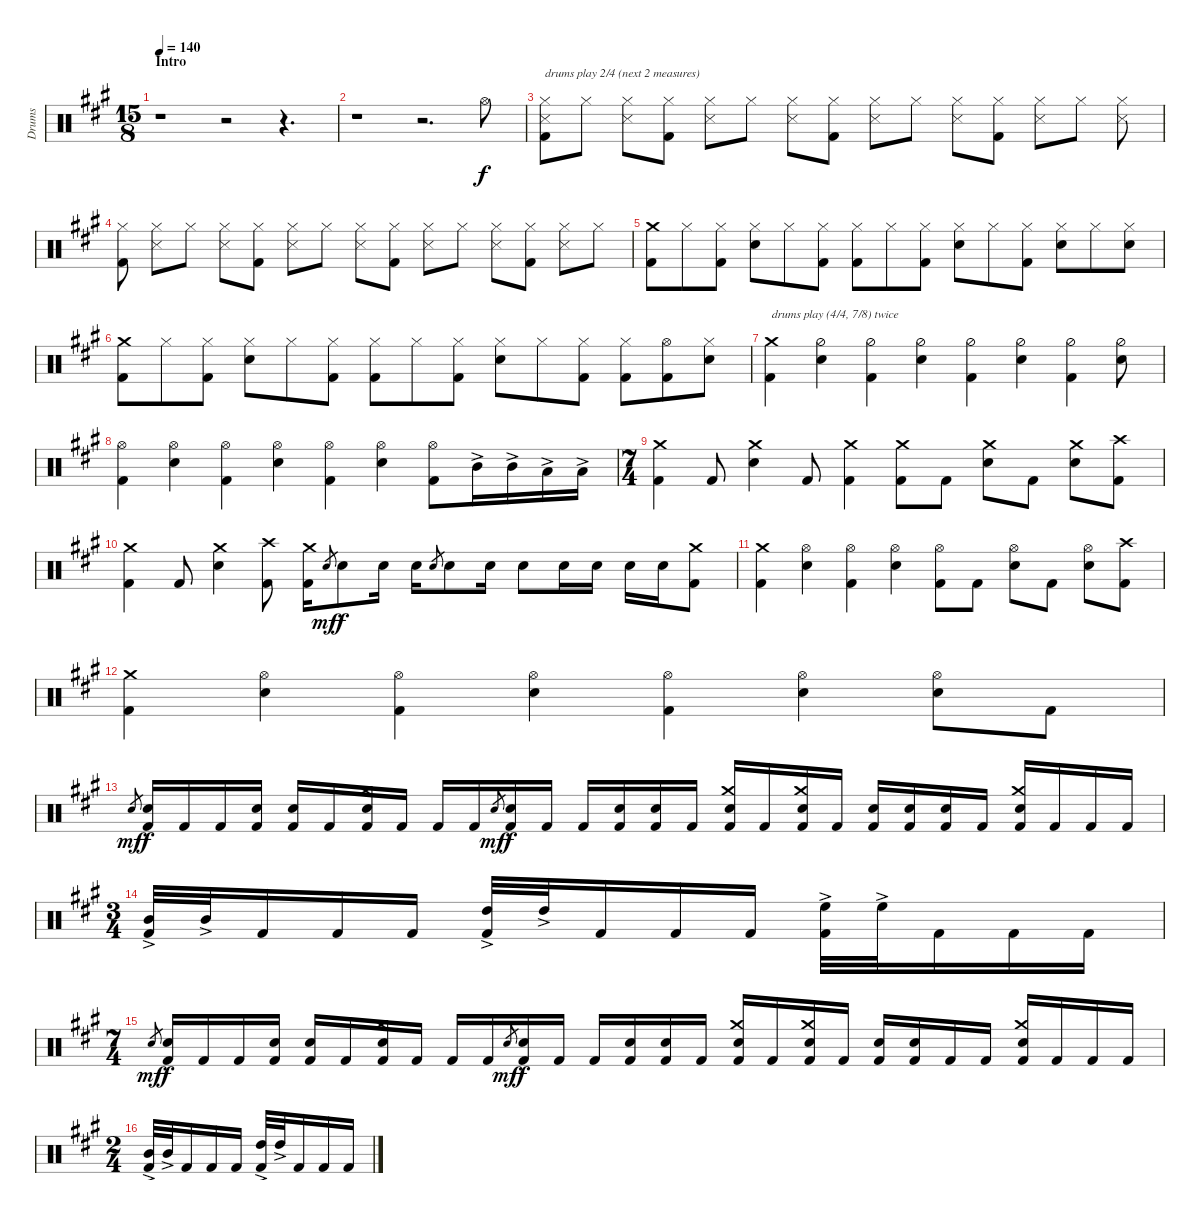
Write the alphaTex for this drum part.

\defaultSystemsLayout 4
\bracketExtendMode groupsimilarinstruments
\otherSystemsTrackNameOrientation horizontal
\track ("Drumkit" "Drums") {multiBarRest instrument percussion}
\staff {score}
\articulation defaults
\ts (15 8)
\beaming (8 3 3 4 4 1)
\section ("" "Intro")
\tempo 140
\clef neutral
\ks a
r.1{dy f} r.2 r.4{d} |
r.1 r.2{d} "Hi-Hat (open)"{acc forcenatural}.8 |
("Hi-Hat (closed)"{acc forcenatural} "Snare (side stick) 3"{acc forcenatural} "Kick (hit) 2"{acc forcenatural}).8{txt "drums play 2/4 (next 2 measures)" beam merge} "Hi-Hat (closed)"{acc forcenatural}.8{beam split} ("Hi-Hat (closed)"{acc forcenatural} "Snare (side stick) 3"{acc forcenatural}).8{beam merge} ("Hi-Hat (closed)"{acc forcenatural} "Kick (hit) 2"{acc forcenatural}).8{beam split} ("Hi-Hat (closed)"{acc forcenatural} "Snare (side stick) 3"{acc forcenatural}).8{beam merge} "Hi-Hat (closed)"{acc forcenatural}.8{beam split} ("Hi-Hat (closed)"{acc forcenatural} "Snare (side stick) 3"{acc forcenatural}).8{beam merge} ("Hi-Hat (closed)"{acc forcenatural} "Kick (hit) 2"{acc forcenatural}).8{beam split} ("Hi-Hat (closed)"{acc forcenatural} "Snare (side stick) 3"{acc forcenatural}).8{beam merge} "Hi-Hat (closed)"{acc forcenatural}.8{beam split} ("Hi-Hat (closed)"{acc forcenatural} "Snare (side stick) 3"{acc forcenatural}).8{beam merge} ("Hi-Hat (closed)"{acc forcenatural} "Kick (hit) 2"{acc forcenatural}).8{beam split} ("Hi-Hat (closed)"{acc forcenatural} "Snare (side stick) 3"{acc forcenatural}).8{beam merge} "Hi-Hat (closed)"{acc forcenatural}.8{beam split} ("Hi-Hat (closed)"{acc forcenatural} "Snare (side stick) 3"{acc forcenatural}).8 |
("Hi-Hat (closed)"{acc forcenatural} "Kick (hit) 2"{acc forcenatural}).8{beam split} ("Hi-Hat (closed)"{acc forcenatural} "Snare (side stick) 3"{acc forcenatural}).8 "Hi-Hat (closed)"{acc forcenatural}.8 ("Hi-Hat (closed)"{acc forcenatural} "Snare (side stick) 3"{acc forcenatural}).8 ("Hi-Hat (closed)"{acc forcenatural} "Kick (hit) 2"{acc forcenatural}).8{beam split} ("Hi-Hat (closed)"{acc forcenatural} "Snare (side stick) 3"{acc forcenatural}).8{beam merge} "Hi-Hat (closed)"{acc forcenatural}.8{beam split} ("Hi-Hat (closed)"{acc forcenatural} "Snare (side stick) 3"{acc forcenatural}).8 ("Hi-Hat (closed)"{acc forcenatural} "Kick (hit) 2"{acc forcenatural}).8{beam split} ("Hi-Hat (closed)"{acc forcenatural} "Snare (side stick) 3"{acc forcenatural}).8{beam merge} "Hi-Hat (closed)"{acc forcenatural}.8{beam split} ("Hi-Hat (closed)"{acc forcenatural} "Snare (side stick) 3"{acc forcenatural}).8 ("Hi-Hat (closed)"{acc forcenatural} "Kick (hit) 2"{acc forcenatural}).8{beam split} ("Hi-Hat (closed)"{acc forcenatural} "Snare (side stick) 3"{acc forcenatural}).8{beam merge} "Hi-Hat (closed)"{acc forcenatural}.8 |
("Crash medium (hit)"{acc forcenatural} "Kick (hit) 2"{acc forcenatural}).8 "Hi-Hat (closed)"{acc forcenatural}.8 ("Hi-Hat (closed)"{acc forcenatural} "Kick (hit) 2"{acc forcenatural}).8 ("Hi-Hat (closed)"{acc forcenatural} "Snare (hit) 2"{acc forcenatural}).8 "Hi-Hat (closed)"{acc forcenatural}.8 ("Hi-Hat (closed)"{acc forcenatural} "Kick (hit) 2"{acc forcenatural}).8 ("Kick (hit) 2"{acc forcenatural} "Hi-Hat (closed)"{acc forcenatural}).8 "Hi-Hat (closed)"{acc forcenatural}.8 ("Hi-Hat (closed)"{acc forcenatural} "Kick (hit) 2"{acc forcenatural}).8{beam split} ("Hi-Hat (closed)"{acc forcenatural} "Snare (hit) 2"{acc forcenatural}).8{beam merge} "Hi-Hat (closed)"{acc forcenatural}.8 ("Hi-Hat (closed)"{acc forcenatural} "Kick (hit) 2"{acc forcenatural}).8{beam split} ("Hi-Hat (closed)"{acc forcenatural} "Snare (hit) 2"{acc forcenatural}).8 "Hi-Hat (closed)"{acc forcenatural}.8{beam merge} ("Hi-Hat (closed)"{acc forcenatural} "Snare (hit) 2"{acc forcenatural}).8{beam merge} |
("Crash medium (hit)"{acc forcenatural} "Kick (hit) 2"{acc forcenatural}).8 "Hi-Hat (closed)"{acc forcenatural}.8 ("Hi-Hat (closed)"{acc forcenatural} "Kick (hit) 2"{acc forcenatural}).8 ("Hi-Hat (closed)"{acc forcenatural} "Snare (hit) 2"{acc forcenatural}).8 "Hi-Hat (closed)"{acc forcenatural}.8 ("Hi-Hat (closed)"{acc forcenatural} "Kick (hit) 2"{acc forcenatural}).8 ("Kick (hit) 2"{acc forcenatural} "Hi-Hat (closed)"{acc forcenatural}).8 "Hi-Hat (closed)"{acc forcenatural}.8 ("Hi-Hat (closed)"{acc forcenatural} "Kick (hit) 2"{acc forcenatural}).8{beam split} ("Hi-Hat (closed)"{acc forcenatural} "Snare (hit) 2"{acc forcenatural}).8{beam merge} "Hi-Hat (closed)"{acc forcenatural}.8 ("Hi-Hat (closed)"{acc forcenatural} "Kick (hit) 2"{acc forcenatural}).8{beam split} ("Hi-Hat (closed)"{acc forcenatural} "Kick (hit) 2"{acc forcenatural}).8{beam merge} ("Hi-Hat (open)"{acc forcenatural} "Kick (hit) 2"{acc forcenatural}).8{beam merge} ("Hi-Hat (closed)"{acc forcenatural} "Snare (hit) 2"{acc forcenatural}).8{beam merge} |
("Crash medium (hit)"{acc forcenatural} "Kick (hit) 2"{acc forcenatural}).4{txt "drums play (4/4, 7/8) twice"} ("Hi-Hat (half)"{acc forcenatural} "Snare (hit) 2"{acc forcenatural}).4 ("Hi-Hat (half)"{acc forcenatural} "Kick (hit) 2"{acc forcenatural}).4 ("Hi-Hat (half)"{acc forcenatural} "Snare (hit) 2"{acc forcenatural}).4 ("Hi-Hat (half)"{acc forcenatural} "Kick (hit) 2"{acc forcenatural}).4 ("Hi-Hat (half)"{acc forcenatural} "Snare (hit) 2"{acc forcenatural}).4 ("Hi-Hat (half)"{acc forcenatural} "Kick (hit) 2"{acc forcenatural}).4 ("Hi-Hat (half)"{acc forcenatural} "Snare (hit) 2"{acc forcenatural}).8 |
("Hi-Hat (open)"{acc forcenatural} "Kick (hit) 2"{acc forcenatural}).4 ("Hi-Hat (open)"{acc forcenatural} "Snare (hit) 2"{acc forcenatural}).4 ("Hi-Hat (open)"{acc forcenatural} "Kick (hit) 2"{acc forcenatural}).4 ("Hi-Hat (open)"{acc forcenatural} "Snare (hit) 2"{acc forcenatural}).4 ("Hi-Hat (open)"{acc forcenatural} "Kick (hit) 2"{acc forcenatural}).4 ("Hi-Hat (open)"{acc forcenatural} "Snare (hit) 2"{acc forcenatural}).4 ("Hi-Hat (open)"{acc forcenatural} "Kick (hit) 2"{acc forcenatural}).8 "Mid Tom (hit)"{ac acc forcenatural}.16 "Mid Tom (hit)"{ac acc forcenatural}.16{beam merge} "Low Tom (hit)"{ac acc forcenatural}.16 "Low Tom (hit)"{ac acc forcenatural}.16 |
\ts (7 4)
\beaming (8 2 2 2 2 2 2 2)
("Crash medium (hit)"{acc forcenatural} "Kick (hit) 2"{acc forcenatural}).4 "Kick (hit) 2"{acc forcenatural}.8 ("Crash medium (hit)"{acc forcenatural} "Snare (hit) 2"{acc forcenatural}).4 "Kick (hit) 2"{acc forcenatural}.8 ("Crash medium (hit)"{acc forcenatural} "Kick (hit) 2"{acc forcenatural}).4 ("Crash medium (hit)"{acc forcenatural} "Kick (hit) 2"{acc forcenatural}).8 "Kick (hit) 2"{acc forcenatural}.8 ("Crash medium (hit)"{acc forcenatural} "Snare (hit) 2"{acc forcenatural}).8 "Kick (hit) 2"{acc forcenatural}.8 ("Crash medium (hit)"{acc forcenatural} "Snare (hit) 2"{acc forcenatural}).8 ("Kick (hit) 2"{acc forcenatural} "Crash high (hit)"{acc forcenatural}).8 |
("Crash medium (hit)"{acc forcenatural} "Kick (hit) 2"{acc forcenatural}).4 "Kick (hit) 2"{acc forcenatural}.8 ("Crash medium (hit)"{acc forcenatural} "Snare (hit) 2"{acc forcenatural}).4 ("Kick (hit) 2"{acc forcenatural} "Crash high (hit)"{acc forcenatural}).8 ("Crash medium (hit)"{acc forcenatural} "Kick (hit) 2"{acc forcenatural}).16 "Snare (hit) 2"{acc forcenatural}.8{gr dy mf} "Snare (hit) 2"{acc forcenatural}.8{dy f} "Snare (hit) 2"{acc forcenatural}.16 "Snare (hit) 2"{acc forcenatural}.16 "Snare (hit) 2"{acc forcenatural}.8{gr} "Snare (hit) 2"{acc forcenatural}.8 "Snare (hit) 2"{acc forcenatural}.16 "Snare (hit) 2"{acc forcenatural}.8 "Snare (hit) 2"{acc forcenatural}.16 "Snare (hit) 2"{acc forcenatural}.16 "Snare (hit) 2"{acc forcenatural}.16 "Snare (hit) 2"{acc forcenatural}.16 ("Crash medium (hit)"{acc forcenatural} "Kick (hit) 2"{acc forcenatural}).8 |
("Crash medium (hit)"{acc forcenatural} "Kick (hit) 2"{acc forcenatural}).4 ("Hi-Hat (open)"{acc forcenatural} "Snare (hit) 2"{acc forcenatural}).4 ("Hi-Hat (open)"{acc forcenatural} "Kick (hit) 2"{acc forcenatural}).4 ("Hi-Hat (open)"{acc forcenatural} "Snare (hit) 2"{acc forcenatural}).4 ("Hi-Hat (open)"{acc forcenatural} "Kick (hit) 2"{acc forcenatural}).8 "Kick (hit) 2"{acc forcenatural}.8 ("Hi-Hat (open)"{acc forcenatural} "Snare (hit) 2"{acc forcenatural}).8 "Kick (hit) 2"{acc forcenatural}.8 ("Hi-Hat (open)"{acc forcenatural} "Snare (hit) 2"{acc forcenatural}).8 ("Kick (hit) 2"{acc forcenatural} "Crash high (hit)"{acc forcenatural}).8 |
("Crash medium (hit)"{acc forcenatural} "Kick (hit) 2"{acc forcenatural}).4 ("Hi-Hat (open)"{acc forcenatural} "Snare (hit) 2"{acc forcenatural}).4 ("Hi-Hat (open)"{acc forcenatural} "Kick (hit) 2"{acc forcenatural}).4 ("Hi-Hat (open)"{acc forcenatural} "Snare (hit) 2"{acc forcenatural}).4 ("Hi-Hat (open)"{acc forcenatural} "Kick (hit) 2"{acc forcenatural}).4 ("Hi-Hat (open)"{acc forcenatural} "Snare (hit) 2"{acc forcenatural}).4 ("Hi-Hat (open)"{acc forcenatural} "Snare (hit) 2"{acc forcenatural}).8 "Kick (hit) 2"{acc forcenatural}.8 |
"Snare (hit) 2"{acc forcenatural}.8{gr dy mf} ("Snare (hit) 2"{acc forcenatural} "Kick (hit) 2"{acc forcenatural}).16{dy f} "Kick (hit) 2"{acc forcenatural}.16 "Kick (hit) 2"{acc forcenatural}.16 ("Snare (hit) 2"{acc forcenatural} "Kick (hit) 2"{acc forcenatural}).16 ("Snare (hit) 2"{acc forcenatural} "Kick (hit) 2"{acc forcenatural}).16 "Kick (hit) 2"{acc forcenatural}.16 ("Snare (hit) 2"{acc forcenatural} "Kick (hit) 2"{acc forcenatural} "Crash medium (hit)"{acc forcenatural}).16 "Kick (hit) 2"{acc forcenatural}.16 "Kick (hit) 2"{acc forcenatural}.16 "Kick (hit) 2"{acc forcenatural}.16 "Snare (hit) 2"{acc forcenatural}.8{gr dy mf} ("Snare (hit) 2"{acc forcenatural} "Kick (hit) 2"{acc forcenatural}).16{dy f} "Kick (hit) 2"{acc forcenatural}.16 "Kick (hit) 2"{acc forcenatural}.16 ("Snare (hit) 2"{acc forcenatural} "Kick (hit) 2"{acc forcenatural}).16 ("Snare (hit) 2"{acc forcenatural} "Kick (hit) 2"{acc forcenatural}).16 "Kick (hit) 2"{acc forcenatural}.16 ("Snare (hit) 2"{acc forcenatural} "Kick (hit) 2"{acc forcenatural} "Crash medium (hit)"{acc forcenatural}).16 "Kick (hit) 2"{acc forcenatural}.16 ("Snare (hit) 2"{acc forcenatural} "Kick (hit) 2"{acc forcenatural} "Crash medium (hit)"{acc forcenatural}).16 "Kick (hit) 2"{acc forcenatural}.16 ("Snare (hit) 2"{acc forcenatural} "Kick (hit) 2"{acc forcenatural}).16 ("Snare (hit) 2"{acc forcenatural} "Kick (hit) 2"{acc forcenatural}).16 ("Snare (hit) 2"{acc forcenatural} "Kick (hit) 2"{acc forcenatural}).16 "Kick (hit) 2"{acc forcenatural}.16 ("Crash medium (hit)"{acc forcenatural} "Snare (hit) 2"{acc forcenatural} "Kick (hit) 2"{acc forcenatural}).16 "Kick (hit) 2"{acc forcenatural}.16 "Kick (hit) 2"{acc forcenatural}.16 "Kick (hit) 2"{acc forcenatural}.16 |
\ts (3 4)
("Kick (hit) 2"{acc forcenatural} "Mid Tom (hit)"{ac acc forcenatural}).32 "Mid Tom (hit)"{ac acc forcenatural}.32 "Kick (hit) 2"{acc forcenatural}.16 "Kick (hit) 2"{acc forcenatural}.16 "Kick (hit) 2"{acc forcenatural}.16 ("High Tom (hit)"{ac acc forcenatural} "Kick (hit) 2"{acc forcenatural}).32 "High Tom (hit)"{ac acc forcenatural}.32 "Kick (hit) 2"{acc forcenatural}.16 "Kick (hit) 2"{acc forcenatural}.16 "Kick (hit) 2"{acc forcenatural}.16 ("Kick (hit) 2"{acc forcenatural} "High Floor Tom (hit)"{ac acc forcenatural}).32 "High Floor Tom (hit)"{ac acc forcenatural}.32 "Kick (hit) 2"{acc forcenatural}.16 "Kick (hit) 2"{acc forcenatural}.16 "Kick (hit) 2"{acc forcenatural}.16 |
\ts (7 4)
"Snare (hit) 2"{acc forcenatural}.8{gr dy mf} ("Snare (hit) 2"{acc forcenatural} "Kick (hit) 2"{acc forcenatural}).16{dy f} "Kick (hit) 2"{acc forcenatural}.16 "Kick (hit) 2"{acc forcenatural}.16 ("Snare (hit) 2"{acc forcenatural} "Kick (hit) 2"{acc forcenatural}).16 ("Snare (hit) 2"{acc forcenatural} "Kick (hit) 2"{acc forcenatural}).16 "Kick (hit) 2"{acc forcenatural}.16 ("Snare (hit) 2"{acc forcenatural} "Kick (hit) 2"{acc forcenatural} "Crash medium (hit)"{acc forcenatural}).16 "Kick (hit) 2"{acc forcenatural}.16 "Kick (hit) 2"{acc forcenatural}.16 "Kick (hit) 2"{acc forcenatural}.16 "Snare (hit) 2"{acc forcenatural}.8{gr dy mf} ("Snare (hit) 2"{acc forcenatural} "Kick (hit) 2"{acc forcenatural}).16{dy f} "Kick (hit) 2"{acc forcenatural}.16 "Kick (hit) 2"{acc forcenatural}.16 ("Snare (hit) 2"{acc forcenatural} "Kick (hit) 2"{acc forcenatural}).16 ("Snare (hit) 2"{acc forcenatural} "Kick (hit) 2"{acc forcenatural}).16 "Kick (hit) 2"{acc forcenatural}.16 ("Snare (hit) 2"{acc forcenatural} "Kick (hit) 2"{acc forcenatural} "Crash medium (hit)"{acc forcenatural}).16 "Kick (hit) 2"{acc forcenatural}.16 ("Snare (hit) 2"{acc forcenatural} "Kick (hit) 2"{acc forcenatural} "Crash medium (hit)"{acc forcenatural}).16 "Kick (hit) 2"{acc forcenatural}.16 ("Snare (hit) 2"{acc forcenatural} "Kick (hit) 2"{acc forcenatural}).16 ("Snare (hit) 2"{acc forcenatural} "Kick (hit) 2"{acc forcenatural}).16 "Kick (hit) 2"{acc forcenatural}.16 "Kick (hit) 2"{acc forcenatural}.16 ("Crash medium (hit)"{acc forcenatural} "Snare (hit) 2"{acc forcenatural} "Kick (hit) 2"{acc forcenatural}).16 "Kick (hit) 2"{acc forcenatural}.16 "Kick (hit) 2"{acc forcenatural}.16 "Kick (hit) 2"{acc forcenatural}.16 |
\ts (2 4)
("Mid Tom (hit)"{ac acc forcenatural} "Kick (hit) 2"{acc forcenatural}).32 "Mid Tom (hit)"{ac acc forcenatural}.32 "Kick (hit) 2"{acc forcenatural}.16 "Kick (hit) 2"{acc forcenatural}.16 "Kick (hit) 2"{acc forcenatural}.16 ("High Tom (hit)"{ac acc forcenatural} "Kick (hit) 2"{acc forcenatural}).32 "High Tom (hit)"{ac acc forcenatural}.32 "Kick (hit) 2"{acc forcenatural}.16 "Kick (hit) 2"{acc forcenatural}.16 "Kick (hit) 2"{acc forcenatural}.16
